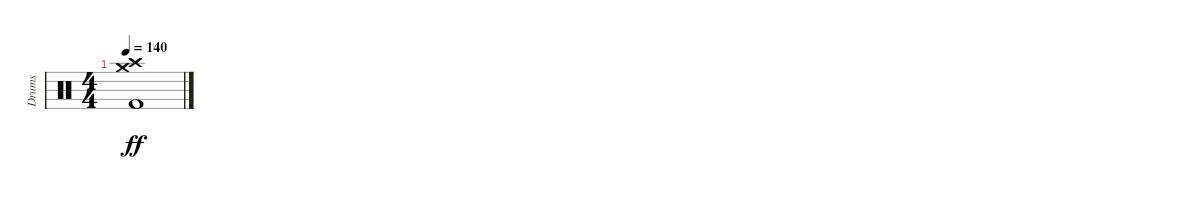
\track ("Drums" "Drums") {instrument percussion}
\staff {score}
\articulation defaults
\ts (4 4)
\tempo 140
\clef neutral
\ks c
("Crash medium (hit)" "Crash high (hit)" "Kick (hit) 2").1{dy ff}
